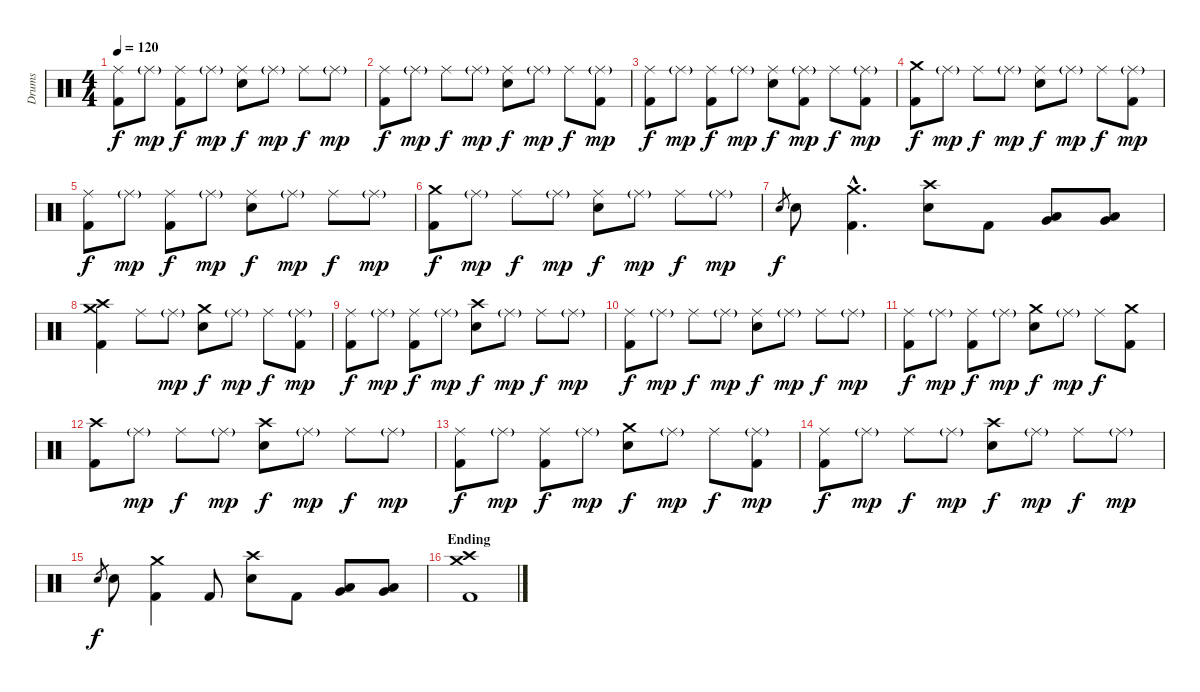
\track ("Drums" "Drums") {instrument percussion}
\staff {score}
\articulation defaults
\ts (4 4)
\tempo 120
\clef neutral
\ks c
("Ride (middle)" "Kick (hit) 2").8{dy f} "Ride (middle)"{g}.8{dy mp} ("Ride (middle)" "Kick (hit) 2").8{dy f} "Ride (middle)"{g}.8{dy mp} ("Ride (middle)" "Snare (hit) 2").8{dy f} "Ride (middle)"{g}.8{dy mp} "Ride (middle)".8{dy f} "Ride (middle)"{g}.8{dy mp} |
("Ride (middle)" "Kick (hit) 2").8{dy f} "Ride (middle)"{g}.8{dy mp} "Ride (middle)".8{dy f} "Ride (middle)"{g}.8{dy mp} ("Ride (middle)" "Snare (hit) 2").8{dy f} "Ride (middle)"{g}.8{dy mp} "Ride (middle)".8{dy f} ("Ride (middle)"{g} "Kick (hit) 2").8{dy mp} |
("Ride (middle)" "Kick (hit) 2").8{dy f} "Ride (middle)"{g}.8{dy mp} ("Ride (middle)" "Kick (hit) 2").8{dy f} "Ride (middle)"{g}.8{dy mp} ("Ride (middle)" "Snare (hit) 2").8{dy f} ("Ride (middle)"{g} "Kick (hit) 2").8{dy mp} "Ride (middle)".8{dy f} ("Ride (middle)"{g} "Kick (hit) 2").8{dy mp} |
("Crash medium (hit)" "Kick (hit) 2").8{dy f} "Ride (middle)"{g}.8{dy mp} "Ride (middle)".8{dy f} "Ride (middle)"{g}.8{dy mp} ("Ride (middle)" "Snare (hit) 2").8{dy f} "Ride (middle)"{g}.8{dy mp} "Ride (middle)".8{dy f} ("Ride (middle)"{g} "Kick (hit) 2").8{dy mp} |
("Ride (middle)" "Kick (hit) 2").8{dy f} "Ride (middle)"{g}.8{dy mp} ("Ride (middle)" "Kick (hit) 2").8{dy f} "Ride (middle)"{g}.8{dy mp} ("Ride (middle)" "Snare (hit) 2").8{dy f} "Ride (middle)"{g}.8{dy mp} "Ride (middle)".8{dy f} "Ride (middle)"{g}.8{dy mp} |
("Crash medium (hit)" "Kick (hit) 2").8{dy f} "Ride (middle)"{g}.8{dy mp} "Ride (middle)".8{dy f} "Ride (middle)"{g}.8{dy mp} ("Ride (middle)" "Snare (hit) 2").8{dy f} "Ride (middle)"{g}.8{dy mp} "Ride (middle)".8{dy f} "Ride (middle)"{g}.8{dy mp} |
"Snare (hit) 2".8{gr dy f} "Snare (hit) 2".8 ("Crash medium (hit)"{hac} "Kick (hit) 2"{hac}).4{d} ("Crash high (hit)" "Snare (hit) 2").8 "Kick (hit) 2".8 ("Low Tom (hit)" "Very Low Tom (hit)").8 ("Low Tom (hit)" "Very Low Tom (hit)").8 |
("Crash medium (hit)" "Crash high (hit)" "Kick (hit) 2").4 "Ride (middle)".8 "Ride (middle)"{g}.8{dy mp} ("Crash medium (hit)" "Snare (hit) 2").8{dy f} "Ride (middle)"{g}.8{dy mp} "Ride (middle)".8{dy f} ("Ride (middle)"{g} "Kick (hit) 2").8{dy mp} |
("Ride (middle)" "Kick (hit) 2").8{dy f} "Ride (middle)"{g}.8{dy mp} ("Ride (middle)" "Kick (hit) 2").8{dy f} "Ride (middle)"{g}.8{dy mp} ("Crash high (hit)" "Snare (hit) 2").8{dy f} "Ride (middle)"{g}.8{dy mp} "Ride (middle)".8{dy f} "Ride (middle)"{g}.8{dy mp} |
("Ride (middle)" "Kick (hit) 2").8{dy f} "Ride (middle)"{g}.8{dy mp} "Ride (middle)".8{dy f} "Ride (middle)"{g}.8{dy mp} ("Ride (middle)" "Snare (hit) 2").8{dy f} "Ride (middle)"{g}.8{dy mp} "Ride (middle)".8{dy f} "Ride (middle)"{g}.8{dy mp} |
("Ride (middle)" "Kick (hit) 2").8{dy f} "Ride (middle)"{g}.8{dy mp} ("Ride (middle)" "Kick (hit) 2").8{dy f} "Ride (middle)"{g}.8{dy mp} ("Crash medium (hit)" "Snare (hit) 2").8{dy f} "Ride (middle)"{g}.8{dy mp} "Ride (middle)".8{dy f} ("Crash medium (hit)" "Kick (hit) 2").8 |
("Crash high (hit)" "Kick (hit) 2").8 "Ride (middle)"{g}.8{dy mp} "Ride (middle)".8{dy f} "Ride (middle)"{g}.8{dy mp} ("Crash high (hit)" "Snare (hit) 2").8{dy f} "Ride (middle)"{g}.8{dy mp} "Ride (middle)".8{dy f} "Ride (middle)"{g}.8{dy mp} |
("Ride (middle)" "Kick (hit) 2").8{dy f} "Ride (middle)"{g}.8{dy mp} ("Ride (middle)" "Kick (hit) 2").8{dy f} "Ride (middle)"{g}.8{dy mp} ("Crash medium (hit)" "Snare (hit) 2").8{dy f} "Ride (middle)"{g}.8{dy mp} "Ride (middle)".8{dy f} ("Ride (middle)"{g} "Kick (hit) 2").8{dy mp} |
("Ride (middle)" "Kick (hit) 2").8{dy f} "Ride (middle)"{g}.8{dy mp} "Ride (middle)".8{dy f} "Ride (middle)"{g}.8{dy mp} ("Crash high (hit)" "Snare (hit) 2").8{dy f} "Ride (middle)"{g}.8{dy mp} "Ride (middle)".8{dy f} "Ride (middle)"{g}.8{dy mp} |
"Snare (hit) 2".8{gr dy f} "Snare (hit) 2".8 ("Crash medium (hit)" "Kick (hit) 2").4 "Kick (hit) 2".8 ("Crash high (hit)" "Snare (hit) 2").8 "Kick (hit) 2".8 ("Low Tom (hit)" "Very Low Tom (hit)").8 ("Low Tom (hit)" "Very Low Tom (hit)").8 |
\section ("" "Ending")
("Crash medium (hit)" "Crash high (hit)" "Kick (hit) 2").1
